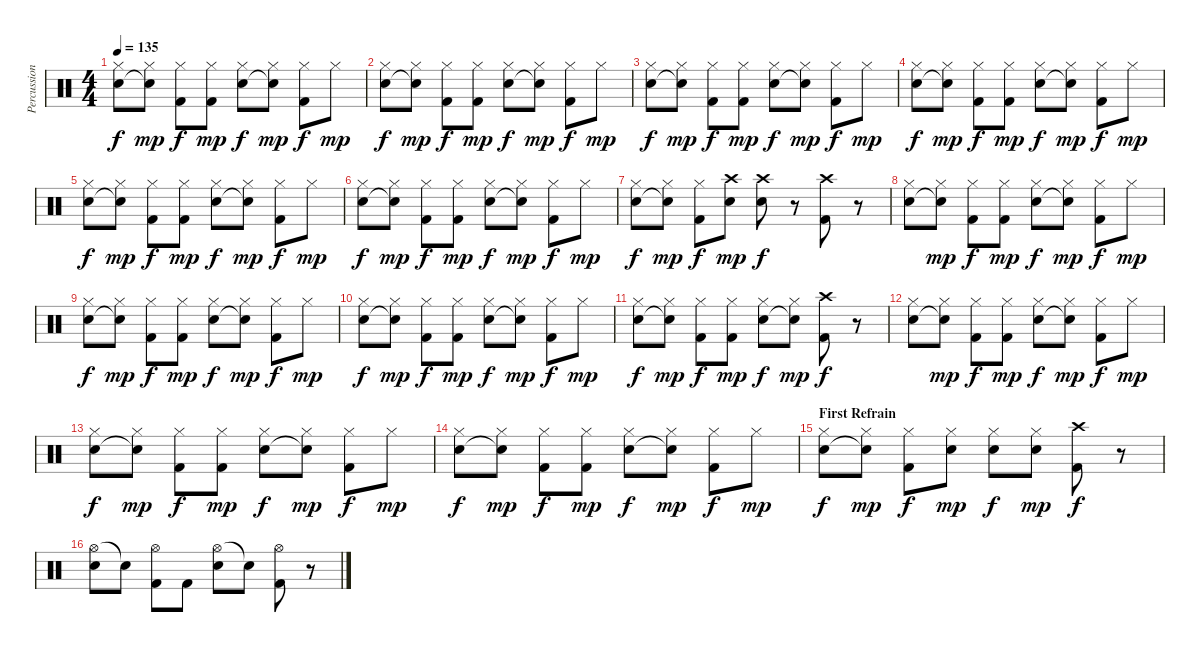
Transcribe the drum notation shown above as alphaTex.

\track ("Percussion" "Percussion") {instrument percussion}
\staff {score}
\articulation defaults
\ts (4 4)
\tempo 135
\clef neutral
\ks c
("Hi-Hat (closed)" "Electric Snare (hit)").8{dy f} ("Hi-Hat (closed)" "Electric Snare (hit)"{t}).8{dy mp} ("Hi-Hat (closed)" "Kick (hit) 2").8{dy f} ("Hi-Hat (closed)" "Kick (hit) 2").8{dy mp} ("Hi-Hat (closed)" "Electric Snare (hit)").8{dy f} ("Hi-Hat (closed)" "Electric Snare (hit)"{t}).8{dy mp} ("Hi-Hat (closed)" "Kick (hit) 2").8{dy f} "Hi-Hat (closed)".8{dy mp} |
("Hi-Hat (closed)" "Electric Snare (hit)").8{dy f} ("Hi-Hat (closed)" "Electric Snare (hit)"{t}).8{dy mp} ("Hi-Hat (closed)" "Kick (hit) 2").8{dy f} ("Hi-Hat (closed)" "Kick (hit) 2").8{dy mp} ("Hi-Hat (closed)" "Electric Snare (hit)").8{dy f} ("Hi-Hat (closed)" "Electric Snare (hit)"{t}).8{dy mp} ("Hi-Hat (closed)" "Kick (hit) 2").8{dy f} "Hi-Hat (closed)".8{dy mp} |
("Hi-Hat (closed)" "Electric Snare (hit)").8{dy f} ("Hi-Hat (closed)" "Electric Snare (hit)"{t}).8{dy mp} ("Hi-Hat (closed)" "Kick (hit) 2").8{dy f} ("Hi-Hat (closed)" "Kick (hit) 2").8{dy mp} ("Hi-Hat (closed)" "Electric Snare (hit)").8{dy f} ("Hi-Hat (closed)" "Electric Snare (hit)"{t}).8{dy mp} ("Hi-Hat (closed)" "Kick (hit) 2").8{dy f} "Hi-Hat (closed)".8{dy mp} |
("Hi-Hat (closed)" "Electric Snare (hit)").8{dy f} ("Hi-Hat (closed)" "Electric Snare (hit)"{t}).8{dy mp} ("Hi-Hat (closed)" "Kick (hit) 2").8{dy f} ("Hi-Hat (closed)" "Kick (hit) 2").8{dy mp} ("Hi-Hat (closed)" "Electric Snare (hit)").8{dy f} ("Hi-Hat (closed)" "Electric Snare (hit)"{t}).8{dy mp} ("Hi-Hat (closed)" "Kick (hit) 2").8{dy f} "Hi-Hat (closed)".8{dy mp} |
("Hi-Hat (closed)" "Electric Snare (hit)").8{dy f} ("Hi-Hat (closed)" "Electric Snare (hit)"{t}).8{dy mp} ("Hi-Hat (closed)" "Kick (hit) 2").8{dy f} ("Hi-Hat (closed)" "Kick (hit) 2").8{dy mp} ("Hi-Hat (closed)" "Electric Snare (hit)").8{dy f} ("Hi-Hat (closed)" "Electric Snare (hit)"{t}).8{dy mp} ("Hi-Hat (closed)" "Kick (hit) 2").8{dy f} "Hi-Hat (closed)".8{dy mp} |
("Hi-Hat (closed)" "Electric Snare (hit)").8{dy f} ("Hi-Hat (closed)" "Electric Snare (hit)"{t}).8{dy mp} ("Hi-Hat (closed)" "Kick (hit) 2").8{dy f} ("Hi-Hat (closed)" "Kick (hit) 2").8{dy mp} ("Hi-Hat (closed)" "Electric Snare (hit)").8{dy f} ("Hi-Hat (closed)" "Electric Snare (hit)"{t}).8{dy mp} ("Hi-Hat (closed)" "Kick (hit) 2").8{dy f} "Hi-Hat (closed)".8{dy mp} |
("Hi-Hat (closed)" "Electric Snare (hit)").8{dy f} ("Hi-Hat (closed)" "Electric Snare (hit)"{t}).8{dy mp} ("Hi-Hat (closed)" "Kick (hit) 2").8{dy f} ("Crash high (hit)" "Electric Snare (hit)").8{dy mp} ("Crash high (hit)" "Electric Snare (hit)").8{dy f} r.8 ("Crash high (hit)" "Kick (hit) 2").8 r.8 |
("Hi-Hat (closed)" "Electric Snare (hit)").8 ("Hi-Hat (closed)" "Electric Snare (hit)"{t}).8{dy mp} ("Hi-Hat (closed)" "Kick (hit) 2").8{dy f} ("Hi-Hat (closed)" "Kick (hit) 2").8{dy mp} ("Hi-Hat (closed)" "Electric Snare (hit)").8{dy f} ("Hi-Hat (closed)" "Electric Snare (hit)"{t}).8{dy mp} ("Hi-Hat (closed)" "Kick (hit) 2").8{dy f} "Hi-Hat (closed)".8{dy mp} |
("Hi-Hat (closed)" "Electric Snare (hit)").8{dy f} ("Hi-Hat (closed)" "Electric Snare (hit)"{t}).8{dy mp} ("Hi-Hat (closed)" "Kick (hit) 2").8{dy f} ("Hi-Hat (closed)" "Kick (hit) 2").8{dy mp} ("Hi-Hat (closed)" "Electric Snare (hit)").8{dy f} ("Hi-Hat (closed)" "Electric Snare (hit)"{t}).8{dy mp} ("Hi-Hat (closed)" "Kick (hit) 2").8{dy f} "Hi-Hat (closed)".8{dy mp} |
("Hi-Hat (closed)" "Electric Snare (hit)").8{dy f} ("Hi-Hat (closed)" "Electric Snare (hit)"{t}).8{dy mp} ("Hi-Hat (closed)" "Kick (hit) 2").8{dy f} ("Hi-Hat (closed)" "Kick (hit) 2").8{dy mp} ("Hi-Hat (closed)" "Electric Snare (hit)").8{dy f} ("Hi-Hat (closed)" "Electric Snare (hit)"{t}).8{dy mp} ("Hi-Hat (closed)" "Kick (hit) 2").8{dy f} "Hi-Hat (closed)".8{dy mp} |
("Hi-Hat (closed)" "Electric Snare (hit)").8{dy f} ("Hi-Hat (closed)" "Electric Snare (hit)"{t}).8{dy mp} ("Hi-Hat (closed)" "Kick (hit) 2").8{dy f} ("Hi-Hat (closed)" "Kick (hit) 2").8{dy mp} ("Hi-Hat (closed)" "Electric Snare (hit)").8{dy f} ("Hi-Hat (closed)" "Electric Snare (hit)"{t}).8{dy mp} ("Crash high (hit)" "Kick (hit) 2").8{dy f} r.8 |
("Hi-Hat (closed)" "Electric Snare (hit)").8 ("Hi-Hat (closed)" "Electric Snare (hit)"{t}).8{dy mp} ("Hi-Hat (closed)" "Kick (hit) 2").8{dy f} ("Hi-Hat (closed)" "Kick (hit) 2").8{dy mp} ("Hi-Hat (closed)" "Electric Snare (hit)").8{dy f} ("Hi-Hat (closed)" "Electric Snare (hit)"{t}).8{dy mp} ("Hi-Hat (closed)" "Kick (hit) 2").8{dy f} "Hi-Hat (closed)".8{dy mp} |
("Hi-Hat (closed)" "Electric Snare (hit)").8{dy f} ("Hi-Hat (closed)" "Electric Snare (hit)"{t}).8{dy mp} ("Hi-Hat (closed)" "Kick (hit) 2").8{dy f} ("Hi-Hat (closed)" "Kick (hit) 2").8{dy mp} ("Hi-Hat (closed)" "Electric Snare (hit)").8{dy f} ("Hi-Hat (closed)" "Electric Snare (hit)"{t}).8{dy mp} ("Hi-Hat (closed)" "Kick (hit) 2").8{dy f} "Hi-Hat (closed)".8{dy mp} |
("Hi-Hat (closed)" "Electric Snare (hit)").8{dy f} ("Hi-Hat (closed)" "Electric Snare (hit)"{t}).8{dy mp} ("Hi-Hat (closed)" "Kick (hit) 2").8{dy f} ("Hi-Hat (closed)" "Kick (hit) 2").8{dy mp} ("Hi-Hat (closed)" "Electric Snare (hit)").8{dy f} ("Hi-Hat (closed)" "Electric Snare (hit)"{t}).8{dy mp} ("Hi-Hat (closed)" "Kick (hit) 2").8{dy f} "Hi-Hat (closed)".8{dy mp} |
\section ("" "First Refrain")
("Hi-Hat (closed)" "Electric Snare (hit)").8{dy f} ("Hi-Hat (closed)" "Electric Snare (hit)"{t}).8{dy mp} ("Hi-Hat (closed)" "Kick (hit) 2").8{dy f} ("Hi-Hat (closed)" "Electric Snare (hit)").8{dy mp} ("Hi-Hat (closed)" "Electric Snare (hit)").8{dy f} ("Hi-Hat (closed)" "Electric Snare (hit)").8{dy mp} ("Crash high (hit)" "Kick (hit) 2").8{dy f} r.8 |
("Hi-Hat (open)" "Electric Snare (hit)").8 "Electric Snare (hit)"{t}.8 ("Hi-Hat (open)" "Kick (hit) 2").8 "Kick (hit) 2".8 ("Hi-Hat (open)" "Electric Snare (hit)").8 "Electric Snare (hit)"{t}.8 ("Hi-Hat (open)" "Kick (hit) 2").8 r.8
